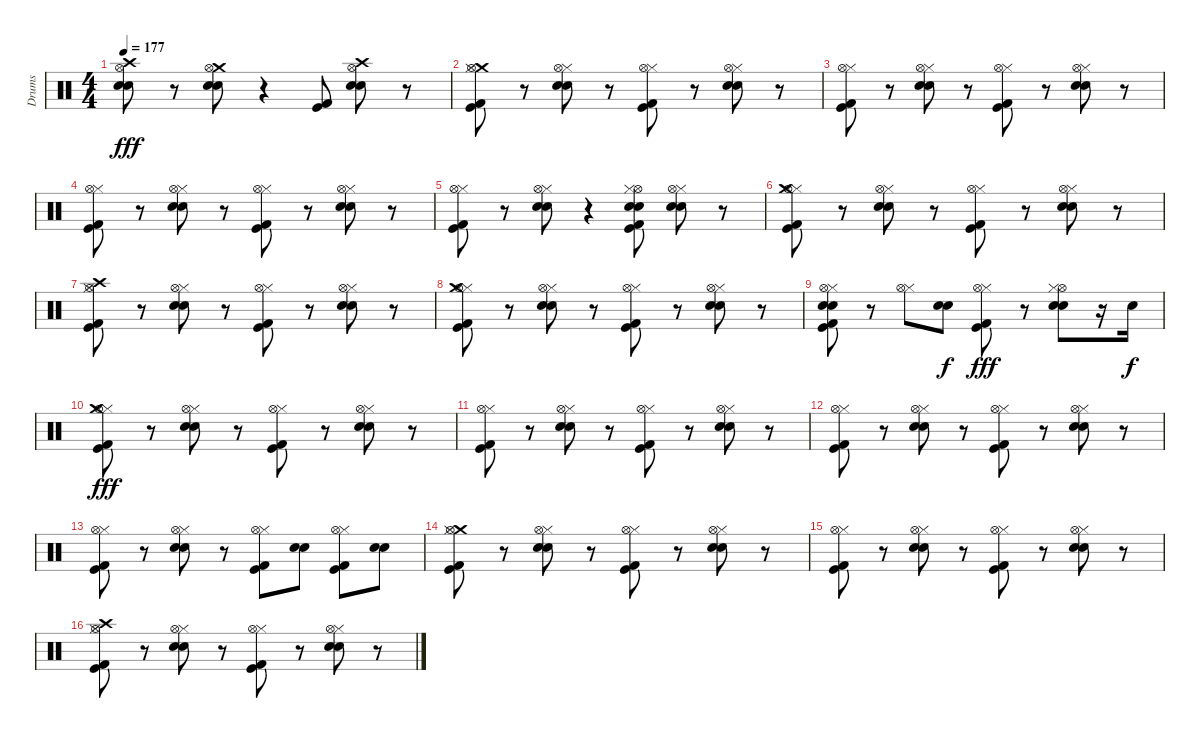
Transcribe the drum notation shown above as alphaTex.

\track ("Drums" "Drums") {instrument percussion}
\staff {score}
\articulation defaults
\ts (4 4)
\tempo 177
\clef neutral
\ks c
("Crash high (hit)" "Hi-Hat (open)" "Electric Snare (hit)" "Snare (hit) 2").8{dy fff} r.8 ("Crash medium (hit)" "Hi-Hat (open)" "Electric Snare (hit)" "Snare (hit) 2").8 r.4 ("Kick (hit) 2" "Kick (hit)").8 ("Crash high (hit)" "Hi-Hat (open)" "Electric Snare (hit)" "Snare (hit) 2").8 r.8 |
("Crash medium (hit)" "Kick (hit) 2" "Kick (hit)" "Hi-Hat (closed)" "Hi-Hat (open)").8 r.8 ("Electric Snare (hit)" "Snare (hit) 2" "Hi-Hat (closed)" "Hi-Hat (open)").8 r.8 ("Kick (hit) 2" "Kick (hit)" "Hi-Hat (closed)" "Hi-Hat (open)").8 r.8 ("Electric Snare (hit)" "Snare (hit) 2" "Hi-Hat (closed)" "Hi-Hat (open)").8 r.8 |
("Kick (hit) 2" "Kick (hit)" "Hi-Hat (closed)" "Hi-Hat (open)").8 r.8 ("Electric Snare (hit)" "Snare (hit) 2" "Hi-Hat (closed)" "Hi-Hat (open)").8 r.8 ("Kick (hit) 2" "Kick (hit)" "Hi-Hat (closed)" "Hi-Hat (open)").8 r.8 ("Electric Snare (hit)" "Snare (hit) 2" "Hi-Hat (closed)" "Hi-Hat (open)").8 r.8 |
("Kick (hit) 2" "Kick (hit)" "Hi-Hat (closed)" "Hi-Hat (open)").8 r.8 ("Electric Snare (hit)" "Snare (hit) 2" "Hi-Hat (closed)" "Hi-Hat (open)").8 r.8 ("Kick (hit) 2" "Kick (hit)" "Hi-Hat (closed)" "Hi-Hat (open)").8 r.8 ("Electric Snare (hit)" "Snare (hit) 2" "Hi-Hat (closed)" "Hi-Hat (open)").8 r.8 |
("Kick (hit) 2" "Kick (hit)" "Hi-Hat (closed)" "Hi-Hat (open)").8 r.8 ("Hi-Hat (closed)" "Electric Snare (hit)" "Snare (hit) 2" "Hi-Hat (open)").8 r.4 ("Electric Snare (hit)" "Hi-Hat (open)" "Hi-Hat (closed)" "Kick (hit) 2" "Kick (hit)" "Snare (hit) 2").8 ("Hi-Hat (closed)" "Electric Snare (hit)" "Snare (hit) 2" "Hi-Hat (open)").8 r.8 |
("Kick (hit) 2" "Kick (hit)" "Hi-Hat (closed)" "Hi-Hat (open)" "Crash medium (hit)").8 r.8 ("Electric Snare (hit)" "Snare (hit) 2" "Hi-Hat (closed)" "Hi-Hat (open)").8 r.8 ("Kick (hit) 2" "Kick (hit)" "Hi-Hat (closed)" "Hi-Hat (open)").8 r.8 ("Electric Snare (hit)" "Snare (hit) 2" "Hi-Hat (closed)" "Hi-Hat (open)").8 r.8 |
("Kick (hit) 2" "Kick (hit)" "Hi-Hat (closed)" "Hi-Hat (open)" "Crash high (hit)").8 r.8 ("Electric Snare (hit)" "Snare (hit) 2" "Hi-Hat (closed)" "Hi-Hat (open)").8 r.8 ("Kick (hit) 2" "Kick (hit)" "Hi-Hat (closed)" "Hi-Hat (open)").8 r.8 ("Electric Snare (hit)" "Snare (hit) 2" "Hi-Hat (closed)" "Hi-Hat (open)").8 r.8 |
("Kick (hit) 2" "Kick (hit)" "Hi-Hat (closed)" "Hi-Hat (open)" "Crash medium (hit)").8 r.8 ("Electric Snare (hit)" "Snare (hit) 2" "Hi-Hat (closed)" "Hi-Hat (open)").8 r.8 ("Kick (hit) 2" "Kick (hit)" "Hi-Hat (closed)" "Hi-Hat (open)").8 r.8 ("Electric Snare (hit)" "Snare (hit) 2" "Hi-Hat (closed)" "Hi-Hat (open)").8 r.8 |
("Kick (hit) 2" "Kick (hit)" "Hi-Hat (closed)" "Hi-Hat (open)" "Snare (hit) 2" "Electric Snare (hit)").8 r.8 ("Hi-Hat (closed)" "Hi-Hat (open)").8 ("Electric Snare (hit)" "Snare (hit) 2").8{dy f} ("Kick (hit) 2" "Kick (hit)" "Hi-Hat (closed)" "Hi-Hat (open)").8{dy fff} r.8 ("Electric Snare (hit)" "Snare (hit) 2" "Hi-Hat (open)" "Hi-Hat (closed)").8 r.16 "Electric Snare (hit)".16{dy f} |
("Kick (hit) 2" "Kick (hit)" "Hi-Hat (closed)" "Hi-Hat (open)" "Crash medium (hit)").8{dy fff} r.8 ("Electric Snare (hit)" "Snare (hit) 2" "Hi-Hat (closed)" "Hi-Hat (open)").8 r.8 ("Kick (hit) 2" "Kick (hit)" "Hi-Hat (closed)" "Hi-Hat (open)").8 r.8 ("Electric Snare (hit)" "Snare (hit) 2" "Hi-Hat (closed)" "Hi-Hat (open)").8 r.8 |
("Kick (hit) 2" "Kick (hit)" "Hi-Hat (closed)" "Hi-Hat (open)").8 r.8 ("Electric Snare (hit)" "Snare (hit) 2" "Hi-Hat (closed)" "Hi-Hat (open)").8 r.8 ("Kick (hit) 2" "Kick (hit)" "Hi-Hat (closed)" "Hi-Hat (open)").8 r.8 ("Electric Snare (hit)" "Snare (hit) 2" "Hi-Hat (closed)" "Hi-Hat (open)").8 r.8 |
("Kick (hit) 2" "Kick (hit)" "Hi-Hat (closed)" "Hi-Hat (open)").8 r.8 ("Electric Snare (hit)" "Snare (hit) 2" "Hi-Hat (closed)" "Hi-Hat (open)").8 r.8 ("Kick (hit) 2" "Kick (hit)" "Hi-Hat (closed)" "Hi-Hat (open)").8 r.8 ("Electric Snare (hit)" "Snare (hit) 2" "Hi-Hat (closed)" "Hi-Hat (open)").8 r.8 |
("Kick (hit) 2" "Kick (hit)" "Hi-Hat (closed)" "Hi-Hat (open)").8 r.8 ("Electric Snare (hit)" "Snare (hit) 2" "Hi-Hat (closed)" "Hi-Hat (open)").8 r.8 ("Kick (hit) 2" "Kick (hit)" "Hi-Hat (closed)" "Hi-Hat (open)").8 ("Electric Snare (hit)" "Snare (hit) 2").8 ("Hi-Hat (closed)" "Hi-Hat (open)" "Kick (hit) 2" "Kick (hit)").8 ("Electric Snare (hit)" "Snare (hit) 2").8 |
("Crash medium (hit)" "Kick (hit) 2" "Kick (hit)" "Hi-Hat (closed)" "Hi-Hat (open)").8 r.8 ("Electric Snare (hit)" "Snare (hit) 2" "Hi-Hat (closed)" "Hi-Hat (open)").8 r.8 ("Kick (hit) 2" "Kick (hit)" "Hi-Hat (closed)" "Hi-Hat (open)").8 r.8 ("Electric Snare (hit)" "Snare (hit) 2" "Hi-Hat (closed)" "Hi-Hat (open)").8 r.8 |
("Kick (hit) 2" "Kick (hit)" "Hi-Hat (closed)" "Hi-Hat (open)").8 r.8 ("Electric Snare (hit)" "Snare (hit) 2" "Hi-Hat (closed)" "Hi-Hat (open)").8 r.8 ("Kick (hit) 2" "Kick (hit)" "Hi-Hat (closed)" "Hi-Hat (open)").8 r.8 ("Electric Snare (hit)" "Snare (hit) 2" "Hi-Hat (closed)" "Hi-Hat (open)").8 r.8 |
("Crash high (hit)" "Kick (hit) 2" "Kick (hit)" "Hi-Hat (closed)" "Hi-Hat (open)").8 r.8 ("Electric Snare (hit)" "Snare (hit) 2" "Hi-Hat (closed)" "Hi-Hat (open)").8 r.8 ("Kick (hit) 2" "Kick (hit)" "Hi-Hat (closed)" "Hi-Hat (open)").8 r.8 ("Electric Snare (hit)" "Snare (hit) 2" "Hi-Hat (closed)" "Hi-Hat (open)").8 r.8
